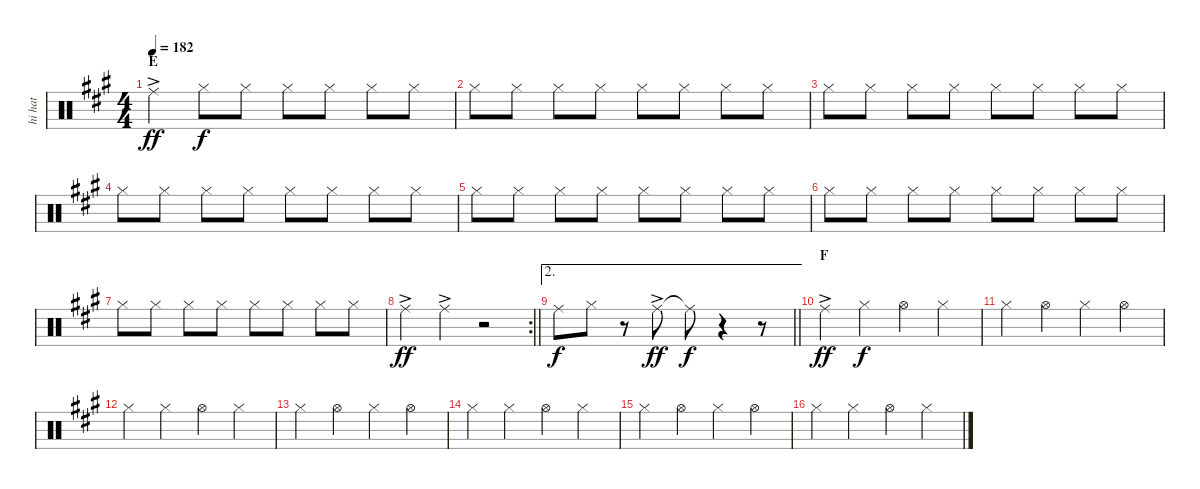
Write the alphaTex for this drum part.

\track ("hi hat" "hi hat") {instrument percussion}
\staff {score}
\articulation defaults
\ts (4 4)
\section ("" "E")
\tempo 182
\clef neutral
\ks f#minor "Ride (middle)"{ac}.4{dy ff} "Hi-Hat (closed)".8{dy f} "Hi-Hat (closed)".8 "Hi-Hat (closed)".8 "Hi-Hat (closed)".8 "Hi-Hat (closed)".8 "Hi-Hat (closed)".8
|
"Hi-Hat (closed)".8 "Hi-Hat (closed)".8 "Hi-Hat (closed)".8 "Hi-Hat (closed)".8 "Hi-Hat (closed)".8 "Hi-Hat (closed)".8 "Hi-Hat (closed)".8 "Hi-Hat (closed)".8 |
"Hi-Hat (closed)".8 "Hi-Hat (closed)".8 "Hi-Hat (closed)".8 "Hi-Hat (closed)".8 "Hi-Hat (closed)".8 "Hi-Hat (closed)".8 "Hi-Hat (closed)".8 "Hi-Hat (closed)".8 |
"Hi-Hat (closed)".8 "Hi-Hat (closed)".8 "Hi-Hat (closed)".8 "Hi-Hat (closed)".8 "Hi-Hat (closed)".8 "Hi-Hat (closed)".8 "Hi-Hat (closed)".8 "Hi-Hat (closed)".8 |
"Hi-Hat (closed)".8 "Hi-Hat (closed)".8 "Hi-Hat (closed)".8 "Hi-Hat (closed)".8 "Hi-Hat (closed)".8 "Hi-Hat (closed)".8 "Hi-Hat (closed)".8 "Hi-Hat (closed)".8 |
"Hi-Hat (closed)".8 "Hi-Hat (closed)".8 "Hi-Hat (closed)".8 "Hi-Hat (closed)".8 "Hi-Hat (closed)".8 "Hi-Hat (closed)".8 "Hi-Hat (closed)".8 "Hi-Hat (closed)".8 |
"Hi-Hat (closed)".8 "Hi-Hat (closed)".8 "Hi-Hat (closed)".8 "Hi-Hat (closed)".8 "Hi-Hat (closed)".8 "Hi-Hat (closed)".8 "Hi-Hat (closed)".8 "Hi-Hat (closed)".8 |
\rc 2
\barLineRight lightlight "Ride (middle)"{ac}.4{dy ff} "Ride (middle)"{ac}.4
r.2 |
\ae 2
\barLineRight lightlight "Ride (middle)".8{dy f} "Hi-Hat (closed)".8
r.8 "Ride (middle)"{ac}.8{dy ff} "Ride (middle)"{t}.8{dy f} r.4 r.8 |
\section ("" "F")
"Ride (middle)"{ac}.4{dy ff} "Hi-Hat (closed)".4{dy f} "Hi-Hat (open)".4 "Hi-Hat (closed)".4 |
"Hi-Hat (closed)".4 "Hi-Hat (open)".4 "Hi-Hat (closed)".4 "Hi-Hat (open)".4 |
"Hi-Hat (closed)".4 "Hi-Hat (closed)".4 "Hi-Hat (open)".4 "Hi-Hat (closed)".4 |
"Hi-Hat (closed)".4 "Hi-Hat (open)".4 "Hi-Hat (closed)".4 "Hi-Hat (open)".4 |
"Hi-Hat (closed)".4 "Hi-Hat (closed)".4 "Hi-Hat (open)".4 "Hi-Hat (closed)".4 |
"Hi-Hat (closed)".4 "Hi-Hat (open)".4 "Hi-Hat (closed)".4 "Hi-Hat (open)".4 |
"Hi-Hat (closed)".4 "Hi-Hat (closed)".4 "Hi-Hat (open)".4 "Hi-Hat (closed)".4
